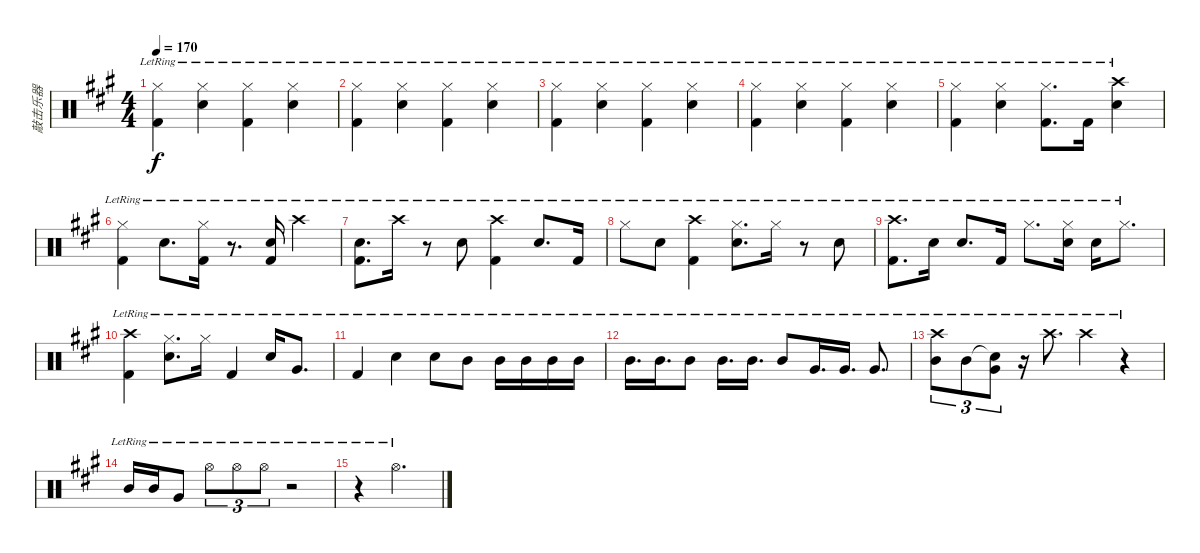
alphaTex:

\track ("敲击乐器" "敲击乐器") {instrument percussion}
\staff {score}
\articulation defaults
\ts (4 4)
\tempo 170
\clef neutral
\ks a
("Hi-Hat (closed)"{lr} "Kick (hit) 2"{lr}).4{dy f} ("Hi-Hat (closed)"{lr} "Snare (hit) 2"{lr}).4 ("Hi-Hat (closed)"{lr} "Kick (hit) 2"{lr}).4 ("Hi-Hat (closed)"{lr} "Snare (hit) 2"{lr}).4 |
("Hi-Hat (closed)"{lr} "Kick (hit) 2"{lr}).4 ("Hi-Hat (closed)"{lr} "Snare (hit) 2"{lr}).4 ("Hi-Hat (closed)"{lr} "Kick (hit) 2"{lr}).4 ("Hi-Hat (closed)"{lr} "Snare (hit) 2"{lr}).4 |
("Hi-Hat (closed)"{lr} "Kick (hit) 2"{lr}).4 ("Hi-Hat (closed)"{lr} "Snare (hit) 2"{lr}).4 ("Hi-Hat (closed)"{lr} "Kick (hit) 2"{lr}).4 ("Hi-Hat (closed)"{lr} "Snare (hit) 2"{lr}).4 |
("Hi-Hat (closed)"{lr} "Kick (hit) 2"{lr}).4 ("Hi-Hat (closed)"{lr} "Snare (hit) 2"{lr}).4 ("Hi-Hat (closed)"{lr} "Kick (hit) 2"{lr}).4 ("Hi-Hat (closed)"{lr} "Snare (hit) 2"{lr}).4 |
("Hi-Hat (closed)"{lr} "Kick (hit) 2"{lr}).4 ("Hi-Hat (closed)"{lr} "Snare (hit) 2"{lr}).4 ("Hi-Hat (closed)"{lr} "Kick (hit) 2"{lr}).8{d} "Kick (hit) 2"{lr}.16 ("Crash high (hit)"{lr} "Snare (hit) 2"{lr}).4 |
("Hi-Hat (closed)"{lr} "Kick (hit) 2"{lr}).4 "Snare (hit) 2"{lr}.8{d} ("Hi-Hat (closed)"{lr} "Kick (hit) 2"{lr}).16 r.8{d} ("Snare (hit) 2"{lr} "Kick (hit) 2"{lr}).16 "Crash high (hit)"{lr}.4 |
("Snare (hit) 2"{lr} "Kick (hit) 2"{lr}).8{d} "Crash high (hit)"{lr}.16 r.8 "Snare (hit) 2"{lr}.8 ("Crash high (hit)"{lr} "Kick (hit) 2"{lr}).4 "Snare (hit) 2"{lr}.8{d} "Kick (hit) 2"{lr}.16 |
"Hi-Hat (closed)"{lr}.8 "Snare (hit) 2"{lr}.8 ("Crash high (hit)"{lr} "Kick (hit) 2"{lr}).4 ("Hi-Hat (closed)"{lr} "Snare (hit) 2"{lr}).8{d} "Hi-Hat (closed)"{lr}.16 r.8 "Snare (hit) 2"{lr}.8 |
("Crash high (hit)"{lr} "Kick (hit) 2"{lr}).8{d} "Snare (hit) 2"{lr}.16 "Snare (hit) 2"{lr}.8{d} "Kick (hit) 2"{lr}.16 "Hi-Hat (closed)"{lr}.8{d} ("Hi-Hat (closed)"{lr} "Snare (hit) 2"{lr}).16 "Snare (hit) 2"{lr}.16 "Hi-Hat (closed)"{lr}.8{d} |
("Crash high (hit)"{lr} "Kick (hit) 2"{lr}).4 ("Hi-Hat (closed)"{lr} "Snare (hit) 2"{lr}).8{d} "Hi-Hat (closed)"{lr}.16 "Kick (hit) 2"{lr}.4 "Snare (hit) 2"{lr}.16 "Very Low Tom (hit)"{lr}.8{d} |
"Kick (hit) 2"{lr}.4 "Snare (hit) 2"{lr}.4 "Snare (hit) 2"{lr}.8 "Mid Tom (hit)"{lr}.8 "Mid Tom (hit)"{lr}.16 "Mid Tom (hit)"{lr}.16 "Mid Tom (hit)"{lr}.16 "Mid Tom (hit)"{lr}.16 |
"Mid Tom (hit)"{lr}.16{d} "Mid Tom (hit)"{lr}.16{d} "Mid Tom (hit)"{lr}.8 "Mid Tom (hit)"{lr}.16{d} "Mid Tom (hit)"{lr}.16{d} "Mid Tom (hit)"{lr}.8 "Very Low Tom (hit)"{lr}.16{d} "Very Low Tom (hit)"{lr}.16{d} "Very Low Tom (hit)"{lr}.8{d} |
("Crash high (hit)"{lr} "Mid Tom (hit)"{lr}).8{tu (3 2)} "Mid Tom (hit)"{lr}.8{tu (3 2)} ("Snare (hit)"{t} "Very Low Tom (hit)"{lr}).8{tu (3 2)} r.16 "Crash high (hit)"{lr}.8{d} "Crash high (hit)"{lr}.4 r.4 |
"Mid Tom (hit)"{lr}.16 "Mid Tom (hit)"{lr}.16 "Very Low Tom (hit)"{lr}.8 "Hi-Hat (open)"{lr}.8{tu (3 2)} "Hi-Hat (open)"{lr}.8{tu (3 2)} "Hi-Hat (open)"{lr}.8{tu (3 2)} r.2 |
r.4 "Hi-Hat (open)"{lr}.2{d}
